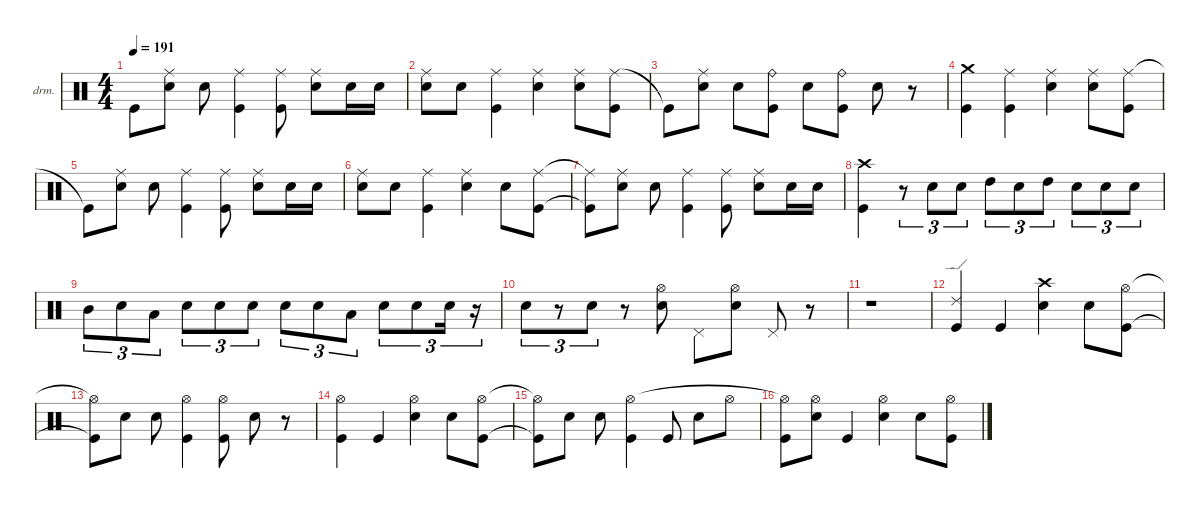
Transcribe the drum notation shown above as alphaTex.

\defaultSystemsLayout 4
\hideDynamics
\bracketExtendMode nobrackets
\firstSystemTrackNameOrientation horizontal
\otherSystemsTrackNameOrientation horizontal
\track ("Drumkit" "drm.") {instrument percussion}
\staff {score}
\articulation defaults
\ts (4 4)
\tempo 191
\clef neutral
\ks c "Kick (hit)"{t}.8{dy mf beam Down}
("Ride (middle)" "Snare (hit) 2").8{dy f beam Down} "Snare (hit) 2".8{beam Down} ("Ride (middle)" "Kick (hit)").4{beam Down} ("Ride (middle)" "Kick (hit)").8{beam Down} ("Ride (middle)" "Snare (hit) 2").8{beam Down} "Snare (hit) 2".16{dy mp beam Down} "Snare (hit) 2".16{beam Down} |
("Ride (middle)" "Snare (hit) 2").8{dy f beam Down} "Snare (hit) 2".8{dy mf beam Down} ("Ride (middle)" "Kick (hit)").4{dy f beam Down} ("Ride (middle)" "Snare (hit) 2").4{beam Down} ("Ride (middle)" "Snare (hit) 2").8{beam Down} ("Ride (middle)" "Kick (hit)").8{beam Down} |
"Kick (hit)"{t}.8{dy mf beam Down} ("Ride (middle)" "Snare (hit) 2").8{dy f beam Down} "Snare (hit) 2".8{beam Down} ("Ride (bell)" "Kick (hit)").8{beam Down} "Snare (hit) 2".8{dy mf beam Down} ("Ride (bell)" "Kick (hit)").8{dy f beam Down} "Snare (hit) 2".8{beam Down} r.8{beam Down} |
("Crash medium (hit)" "Kick (hit)").4{beam Down} ("Ride (middle)" "Kick (hit)").4{dy mp beam Down} ("Ride (middle)" "Snare (hit) 2").4{beam Down} ("Ride (middle)" "Snare (hit) 2").8{dy f beam Down} ("Ride (middle)" "Kick (hit)").8{beam Down} |
"Kick (hit)"{t}.8{beam Down} ("Ride (middle)" "Snare (hit) 2").8{beam Down} "Snare (hit) 2".8{beam Down} ("Ride (middle)" "Kick (hit)").4{beam Down} ("Ride (middle)" "Kick (hit)").8{beam Down} ("Ride (middle)" "Snare (hit) 2").8{beam Down} "Snare (hit) 2".16{dy mp beam Down} "Snare (hit) 2".16{beam Down} |
("Ride (middle)" "Snare (hit) 2").8{dy f beam Down} "Snare (hit) 2".8{dy mf beam Down} ("Ride (middle)" "Kick (hit)").4{dy f beam Down} ("Ride (middle)" "Snare (hit) 2").4{beam Down} "Snare (hit) 2".8{dy mf beam Down} ("Ride (middle)" "Kick (hit)").8{beam Down} |
("Ride (middle)"{t} "Kick (hit)"{t}).8{beam Down} ("Ride (middle)" "Snare (hit) 2").8{dy f beam Down} "Snare (hit) 2".8{beam Down} ("Kick (hit)" "Ride (middle)").4{beam Down} ("Ride (middle)" "Kick (hit)").8{beam Down} ("Ride (middle)" "Snare (hit) 2").8{beam Down} "Snare (hit) 2".16{dy mp beam Down} "Snare (hit) 2".16{beam Down} |
("Kick (hit)" "Crash high (hit)").4{dy f beam Down} r.8{tu (3 2) beam Down} "Snare (hit) 2".8{tu (3 2) dy mp beam Down} "Snare (hit) 2".8{tu (3 2) beam Down} "High Tom (hit)".8{tu (3 2) dy f beam Down} "Snare (hit) 2".8{tu (3 2) dy p beam Down} "High Tom (hit)".8{tu (3 2) dy f beam Down} "Snare (hit) 2".8{tu (3 2) dy p beam Down} "Snare (hit) 2".8{tu (3 2) dy mp beam Down} "Snare (hit) 2".8{tu (3 2) beam Down} |
"Mid Tom (hit)".8{tu (3 2) dy f beam Down} "Snare (hit) 2".8{tu (3 2) dy p beam Down} "Low Tom (hit)".8{tu (3 2) dy f beam Down} "Snare (hit) 2".8{tu (3 2) dy p beam Down} "Snare (hit) 2".8{tu (3 2) dy mp beam Down} "Snare (hit) 2".8{tu (3 2) dy mf beam Down} "Snare (hit) 2".8{tu (3 2) dy f beam Down} "Snare (hit) 2".8{tu (3 2) dy p beam Down} "Low Tom (hit)".8{tu (3 2) dy mf beam Down} "Snare (hit) 2".8{tu (3 2) dy mp beam Down} "Snare (hit) 2".8{tu (3 2) beam Down} "Snare (hit) 2".16{tu (3 2) dy p beam Down} r.16{tu (3 2) beam Down} |
"Snare (hit) 2".8{tu (3 2) dy f beam Down} r.8{tu (3 2) beam Down} "Snare (hit) 2".8{tu (3 2) beam Down} r.8{beam Down} ("Snare (hit) 2" "Hi-Hat (open)").8{beam Down} "Pedal Hi-Hat (hit)".8{beam Down} ("Snare (hit) 2" "Hi-Hat (open)").8{beam Down} "Pedal Hi-Hat (hit)".8{beam Up} r.8{beam Up} |
r.1{beam Down} |
("Ride (edge) 2" "Kick (hit)").4{beam Up} "Kick (hit)".4{beam Up} ("Snare (hit) 2" "Crash high (hit)").4{beam Down} "Snare (hit) 2".8{beam Down} ("Kick (hit)" "Hi-Hat (open)").8{beam Down} |
("Kick (hit)"{t} "Hi-Hat (open)"{t}).8{beam Down} "Snare (hit) 2".8{dy mp beam Down} "Snare (hit) 2".8{dy mf beam Down} ("Kick (hit)" "Hi-Hat (open)").4{beam Down} ("Hi-Hat (open)" "Kick (hit)").8{dy f beam Down} "Snare (hit) 2".8{dy mf beam Down} r.8{beam Down} |
("Kick (hit)" "Hi-Hat (open)").4{dy f beam Down} "Kick (hit)".4{beam Up} ("Snare (hit) 2" "Hi-Hat (open)").4{beam Down} "Snare (hit) 2".8{beam Down} ("Kick (hit)" "Hi-Hat (open)").8{beam Down} |
("Kick (hit)"{t} "Hi-Hat (open)"{t}).8{dy mf beam Down} "Snare (hit) 2".8{beam Down} "Snare (hit) 2".8{beam Down} ("Kick (hit)" "Hi-Hat (open)").4{beam Down} "Kick (hit)".8{beam Up} "Snare (hit) 2".8{beam Down} "Hi-Hat (open)".8{beam Down} |
("Kick (hit)" "Hi-Hat (open)"{t}).8{beam Down} ("Hi-Hat (open)" "Snare (hit) 2").8{dy f beam Down} "Kick (hit)".4{dy mf beam Up} ("Snare (hit) 2" "Hi-Hat (open)").4{beam Down} "Snare (hit) 2".8{beam Down} ("Kick (hit)" "Hi-Hat (open)").8{beam Down}
